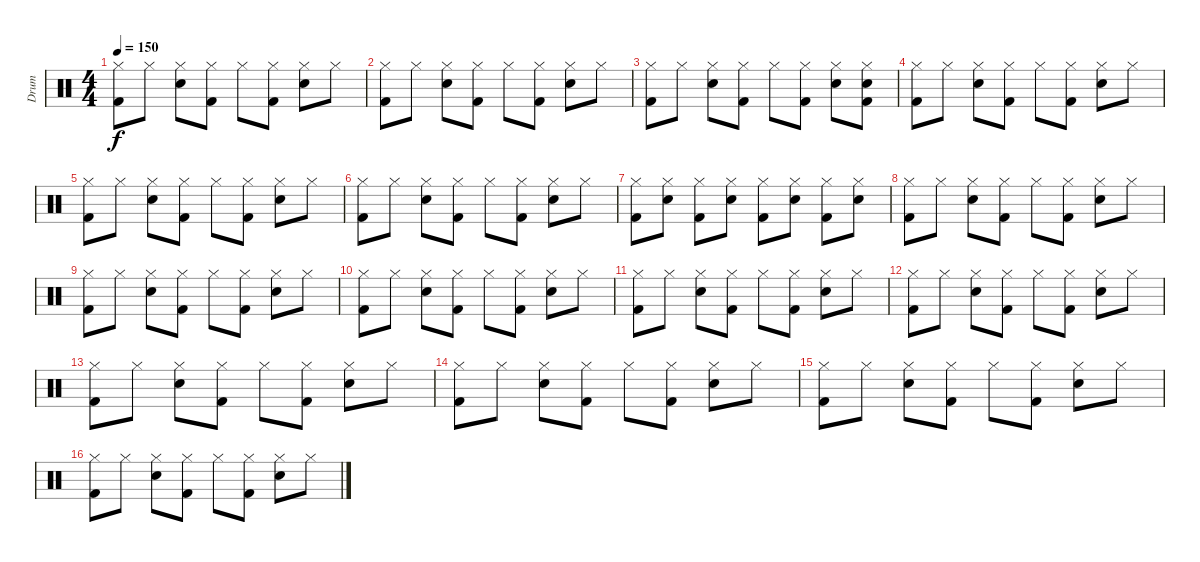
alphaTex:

\track ("Drum" "Drum") {instrument percussion}
\staff {score}
\articulation defaults
\ts (4 4)
\tempo 150
\clef neutral
\ks c
("Hi-Hat (closed)" "Kick (hit) 2").8{dy f} "Hi-Hat (closed)".8 ("Hi-Hat (closed)" "Snare (hit) 2").8 ("Hi-Hat (closed)" "Kick (hit) 2").8 "Hi-Hat (closed)".8 ("Hi-Hat (closed)" "Kick (hit) 2").8 ("Hi-Hat (closed)" "Snare (hit) 2").8 "Hi-Hat (closed)".8 |
("Hi-Hat (closed)" "Kick (hit) 2").8 "Hi-Hat (closed)".8 ("Hi-Hat (closed)" "Snare (hit) 2").8 ("Hi-Hat (closed)" "Kick (hit) 2").8 "Hi-Hat (closed)".8 ("Hi-Hat (closed)" "Kick (hit) 2").8 ("Hi-Hat (closed)" "Snare (hit) 2").8 "Hi-Hat (closed)".8 |
("Hi-Hat (closed)" "Kick (hit) 2").8 "Hi-Hat (closed)".8 ("Snare (hit) 2" "Hi-Hat (closed)").8 ("Hi-Hat (closed)" "Kick (hit) 2").8 "Hi-Hat (closed)".8 ("Hi-Hat (closed)" "Kick (hit) 2").8 ("Hi-Hat (closed)" "Snare (hit) 2").8 ("Kick (hit) 2" "Hi-Hat (closed)" "Snare (hit) 2").8 |
("Hi-Hat (closed)" "Kick (hit) 2").8 "Hi-Hat (closed)".8 ("Hi-Hat (closed)" "Snare (hit) 2").8 ("Hi-Hat (closed)" "Kick (hit) 2").8 "Hi-Hat (closed)".8 ("Hi-Hat (closed)" "Kick (hit) 2").8 ("Hi-Hat (closed)" "Snare (hit) 2").8 "Hi-Hat (closed)".8 |
("Hi-Hat (closed)" "Kick (hit) 2").8 "Hi-Hat (closed)".8 ("Hi-Hat (closed)" "Snare (hit) 2").8 ("Hi-Hat (closed)" "Kick (hit) 2").8 "Hi-Hat (closed)".8 ("Hi-Hat (closed)" "Kick (hit) 2").8 ("Hi-Hat (closed)" "Snare (hit) 2").8 "Hi-Hat (closed)".8 |
("Hi-Hat (closed)" "Kick (hit) 2").8 "Hi-Hat (closed)".8 ("Hi-Hat (closed)" "Snare (hit) 2").8 ("Hi-Hat (closed)" "Kick (hit) 2").8 "Hi-Hat (closed)".8 ("Hi-Hat (closed)" "Kick (hit) 2").8 ("Hi-Hat (closed)" "Snare (hit) 2").8 "Hi-Hat (closed)".8 |
("Hi-Hat (closed)" "Kick (hit) 2").8 ("Hi-Hat (closed)" "Snare (hit) 2").8 ("Hi-Hat (closed)" "Kick (hit) 2").8 ("Hi-Hat (closed)" "Snare (hit) 2").8 ("Hi-Hat (closed)" "Kick (hit) 2").8 ("Hi-Hat (closed)" "Snare (hit) 2").8 ("Hi-Hat (closed)" "Kick (hit) 2").8 ("Hi-Hat (closed)" "Snare (hit) 2").8 |
("Hi-Hat (closed)" "Kick (hit) 2").8 "Hi-Hat (closed)".8 ("Hi-Hat (closed)" "Snare (hit) 2").8 ("Hi-Hat (closed)" "Kick (hit) 2").8 "Hi-Hat (closed)".8 ("Hi-Hat (closed)" "Kick (hit) 2").8 ("Hi-Hat (closed)" "Snare (hit) 2").8 "Hi-Hat (closed)".8 |
("Hi-Hat (closed)" "Kick (hit) 2").8 "Hi-Hat (closed)".8 ("Hi-Hat (closed)" "Snare (hit) 2").8 ("Hi-Hat (closed)" "Kick (hit) 2").8 "Hi-Hat (closed)".8 ("Hi-Hat (closed)" "Kick (hit) 2").8 ("Snare (hit) 2" "Hi-Hat (closed)").8 "Hi-Hat (closed)".8 |
("Hi-Hat (closed)" "Kick (hit) 2").8 "Hi-Hat (closed)".8 ("Hi-Hat (closed)" "Snare (hit) 2").8 ("Hi-Hat (closed)" "Kick (hit) 2").8 "Hi-Hat (closed)".8 ("Hi-Hat (closed)" "Kick (hit) 2").8 ("Hi-Hat (closed)" "Snare (hit) 2").8 "Hi-Hat (closed)".8 |
("Hi-Hat (closed)" "Kick (hit) 2").8 "Hi-Hat (closed)".8 ("Hi-Hat (closed)" "Snare (hit) 2").8 ("Hi-Hat (closed)" "Kick (hit) 2").8 "Hi-Hat (closed)".8 ("Hi-Hat (closed)" "Kick (hit) 2").8 ("Hi-Hat (closed)" "Snare (hit) 2").8 "Hi-Hat (closed)".8 |
("Hi-Hat (closed)" "Kick (hit) 2").8 "Hi-Hat (closed)".8 ("Hi-Hat (closed)" "Snare (hit) 2").8 ("Hi-Hat (closed)" "Kick (hit) 2").8 "Hi-Hat (closed)".8 ("Hi-Hat (closed)" "Kick (hit) 2").8 ("Hi-Hat (closed)" "Snare (hit) 2").8 "Hi-Hat (closed)".8 |
("Hi-Hat (closed)" "Kick (hit) 2").8 "Hi-Hat (closed)".8 ("Hi-Hat (closed)" "Snare (hit) 2").8 ("Hi-Hat (closed)" "Kick (hit) 2").8 "Hi-Hat (closed)".8 ("Hi-Hat (closed)" "Kick (hit) 2").8 ("Hi-Hat (closed)" "Snare (hit) 2").8 "Hi-Hat (closed)".8 |
("Hi-Hat (closed)" "Kick (hit) 2").8 "Hi-Hat (closed)".8 ("Snare (hit) 2" "Hi-Hat (closed)").8 ("Hi-Hat (closed)" "Kick (hit) 2").8 "Hi-Hat (closed)".8 ("Hi-Hat (closed)" "Kick (hit) 2").8 ("Hi-Hat (closed)" "Snare (hit) 2").8 "Hi-Hat (closed)".8 |
("Hi-Hat (closed)" "Kick (hit) 2").8 "Hi-Hat (closed)".8 ("Snare (hit) 2" "Hi-Hat (closed)").8 ("Hi-Hat (closed)" "Kick (hit) 2").8 "Hi-Hat (closed)".8 ("Hi-Hat (closed)" "Kick (hit) 2").8 ("Hi-Hat (closed)" "Snare (hit) 2").8 "Hi-Hat (closed)".8 |
("Hi-Hat (closed)" "Kick (hit) 2").8 "Hi-Hat (closed)".8 ("Hi-Hat (closed)" "Snare (hit) 2").8 ("Hi-Hat (closed)" "Kick (hit) 2").8 "Hi-Hat (closed)".8 ("Kick (hit) 2" "Hi-Hat (closed)").8 ("Snare (hit) 2" "Hi-Hat (closed)").8 "Hi-Hat (closed)".8
